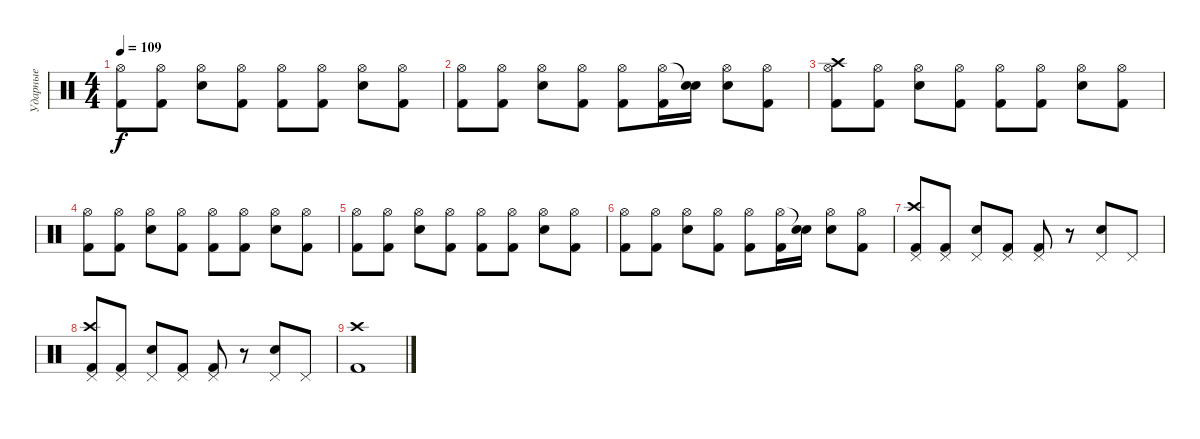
\track ("Ударные" "Ударные") {instrument percussion}
\staff {score}
\articulation defaults
\ts (4 4)
\tempo 109
\clef neutral
\ks c
("Kick (hit) 2" "Hi-Hat (open)").8{dy f} ("Kick (hit) 2" "Hi-Hat (open)").8 ("Snare (hit) 2" "Hi-Hat (open)").8 ("Kick (hit) 2" "Hi-Hat (open)").8 ("Kick (hit) 2" "Hi-Hat (open)").8 ("Kick (hit) 2" "Hi-Hat (open)").8 ("Snare (hit) 2" "Hi-Hat (open)").8 ("Kick (hit) 2" "Hi-Hat (open)").8 |
("Kick (hit) 2" "Hi-Hat (open)").8 ("Kick (hit) 2" "Hi-Hat (open)").8 ("Snare (hit) 2" "Hi-Hat (open)").8 ("Kick (hit) 2" "Hi-Hat (open)").8 ("Kick (hit) 2" "Hi-Hat (open)").8 ("Kick (hit) 2" "Hi-Hat (open)").16 ("Snare (hit) 2" "Snare (hit)"{t}).16 ("Snare (hit) 2" "Hi-Hat (open)").8 ("Kick (hit) 2" "Hi-Hat (open)").8 |
("Kick (hit) 2" "Crash high (hit)" "Hi-Hat (open)").8 ("Kick (hit) 2" "Hi-Hat (open)").8 ("Snare (hit) 2" "Hi-Hat (open)").8 ("Kick (hit) 2" "Hi-Hat (open)").8 ("Kick (hit) 2" "Hi-Hat (open)").8 ("Kick (hit) 2" "Hi-Hat (open)").8 ("Snare (hit) 2" "Hi-Hat (open)").8 ("Kick (hit) 2" "Hi-Hat (open)").8 |
("Kick (hit) 2" "Hi-Hat (open)").8 ("Kick (hit) 2" "Hi-Hat (open)").8 ("Snare (hit) 2" "Hi-Hat (open)").8 ("Kick (hit) 2" "Hi-Hat (open)").8 ("Kick (hit) 2" "Hi-Hat (open)").8 ("Kick (hit) 2" "Hi-Hat (open)").8 ("Snare (hit) 2" "Hi-Hat (open)").8 ("Kick (hit) 2" "Hi-Hat (open)").8 |
("Kick (hit) 2" "Hi-Hat (open)").8 ("Kick (hit) 2" "Hi-Hat (open)").8 ("Snare (hit) 2" "Hi-Hat (open)").8 ("Kick (hit) 2" "Hi-Hat (open)").8 ("Kick (hit) 2" "Hi-Hat (open)").8 ("Kick (hit) 2" "Hi-Hat (open)").8 ("Snare (hit) 2" "Hi-Hat (open)").8 ("Kick (hit) 2" "Hi-Hat (open)").8 |
("Kick (hit) 2" "Hi-Hat (open)").8 ("Kick (hit) 2" "Hi-Hat (open)").8 ("Snare (hit) 2" "Hi-Hat (open)").8 ("Kick (hit) 2" "Hi-Hat (open)").8 ("Kick (hit) 2" "Hi-Hat (open)").8 ("Kick (hit) 2" "Hi-Hat (open)").16 ("Snare (hit) 2" "Snare (hit)"{t}).16 ("Snare (hit) 2" "Hi-Hat (open)").8 ("Kick (hit) 2" "Hi-Hat (open)").8 |
("Kick (hit) 2" "Crash high (hit)" "Pedal Hi-Hat (hit)").8 ("Kick (hit) 2" "Pedal Hi-Hat (hit)").8 ("Snare (hit) 2" "Pedal Hi-Hat (hit)").8 ("Kick (hit) 2" "Pedal Hi-Hat (hit)").8 ("Kick (hit) 2" "Pedal Hi-Hat (hit)").8 r.8 ("Snare (hit) 2" "Pedal Hi-Hat (hit)").8 "Pedal Hi-Hat (hit)".8 |
("Kick (hit) 2" "Crash high (hit)" "Pedal Hi-Hat (hit)").8 ("Kick (hit) 2" "Pedal Hi-Hat (hit)").8 ("Snare (hit) 2" "Pedal Hi-Hat (hit)").8 ("Kick (hit) 2" "Pedal Hi-Hat (hit)").8 ("Kick (hit) 2" "Pedal Hi-Hat (hit)").8 r.8 ("Snare (hit) 2" "Pedal Hi-Hat (hit)").8 "Pedal Hi-Hat (hit)".8 |
("Kick (hit) 2" "Crash high (hit)").1
